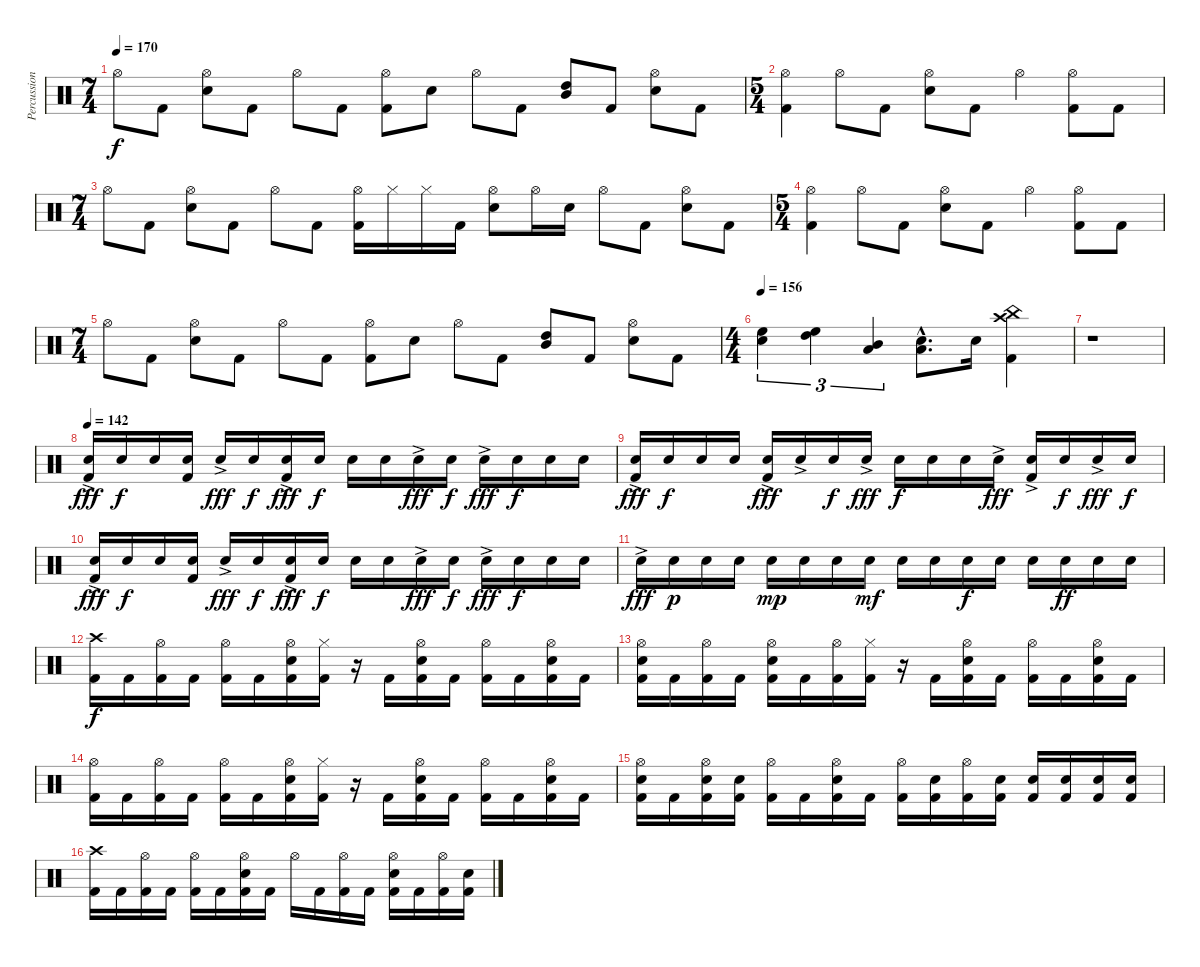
\track ("Percussion" "Percussion") {instrument percussion}
\staff {score}
\articulation defaults
\ts (7 4)
\tempo 170
\clef neutral
\ks c "Hi-Hat (open)".8{dy f} "Kick (hit) 2".8
("Hi-Hat (open)" "Electric Snare (hit)").8 "Kick (hit) 2".8 "Hi-Hat (open)".8 "Kick (hit) 2".8 ("Hi-Hat (open)" "Kick (hit) 2").8 "Electric Snare (hit)".8 "Hi-Hat (open)".8 "Kick (hit) 2".8 ("High Tom (hit)" "Mid Tom (hit)").8 "Kick (hit) 2".8 ("Hi-Hat (open)" "Electric Snare (hit)").8 "Kick (hit) 2".8 |
\ts (5 4)
("Hi-Hat (open)" "Kick (hit) 2").4 "Hi-Hat (open)".8 "Kick (hit) 2".8 ("Hi-Hat (open)" "Electric Snare (hit)").8 "Kick (hit) 2".8 "Hi-Hat (open)".4 ("Hi-Hat (open)" "Kick (hit) 2").8 "Kick (hit) 2".8 |
\ts (7 4)
"Hi-Hat (open)".8 "Kick (hit) 2".8 ("Hi-Hat (open)" "Electric Snare (hit)").8 "Kick (hit) 2".8 "Hi-Hat (open)".8 "Kick (hit) 2".8 ("Hi-Hat (open)" "Kick (hit) 2").16 "Hi-Hat (closed)".16 "Hi-Hat (closed)".16 "Kick (hit) 2".16 ("Hi-Hat (open)" "Electric Snare (hit)").8 "Hi-Hat (open)".16 "Electric Snare (hit)".16 "Hi-Hat (open)".8 "Kick (hit) 2".8 ("Hi-Hat (open)" "Electric Snare (hit)").8 "Kick (hit) 2".8 |
\ts (5 4)
("Hi-Hat (open)" "Kick (hit) 2").4 "Hi-Hat (open)".8 "Kick (hit) 2".8 ("Hi-Hat (open)" "Electric Snare (hit)").8 "Kick (hit) 2".8 "Hi-Hat (open)".4 ("Hi-Hat (open)" "Kick (hit) 2").8 "Kick (hit) 2".8 |
\ts (7 4)
"Hi-Hat (open)".8 "Kick (hit) 2".8 ("Hi-Hat (open)" "Electric Snare (hit)").8 "Kick (hit) 2".8 "Hi-Hat (open)".8 "Kick (hit) 2".8 ("Hi-Hat (open)" "Kick (hit) 2").8 "Electric Snare (hit)".8 "Hi-Hat (open)".8 "Kick (hit) 2".8 ("High Tom (hit)" "Mid Tom (hit)").8 "Kick (hit) 2".8 ("Hi-Hat (open)" "Electric Snare (hit)").8 "Kick (hit) 2".8 |
\ts (4 4)
\tempo 156
("High Floor Tom (hit)" "Electric Snare (hit)").4{tu (3 2)} ("High Floor Tom (hit)" "High Tom (hit)").4{tu (3 2)} ("Mid Tom (hit)" "Low Tom (hit)").4{tu (3 2)} ("Electric Snare (hit)"{hac} "Low Tom (hit)"{hac}).8{d} "Electric Snare (hit)".16 ("Crash high (hit)" "China (hit)" "Kick (hit) 2").4 |
r.1 |
\tempo 142
("Electric Snare (hit)"{ac} "Kick (hit) 2").16{dy fff} "Electric Snare (hit)".16{dy f} "Electric Snare (hit)".16 ("Electric Snare (hit)" "Kick (hit) 2").16 "Electric Snare (hit)"{ac}.16{dy fff} "Electric Snare (hit)".16{dy f} ("Electric Snare (hit)"{ac} "Kick (hit) 2").16{dy fff} "Electric Snare (hit)".16{dy f} "Electric Snare (hit)".16 "Electric Snare (hit)".16 "Electric Snare (hit)"{ac}.16{dy fff} "Electric Snare (hit)".16{dy f} "Electric Snare (hit)"{ac}.16{dy fff} "Electric Snare (hit)".16{dy f} "Electric Snare (hit)".16 "Electric Snare (hit)".16 |
("Electric Snare (hit)"{ac} "Kick (hit) 2").16{dy fff} "Electric Snare (hit)".16{dy f} "Electric Snare (hit)".16 "Electric Snare (hit)".16 ("Electric Snare (hit)"{ac} "Kick (hit) 2").16{dy fff} "Electric Snare (hit)"{ac}.16 "Electric Snare (hit)".16{dy f} "Electric Snare (hit)"{ac}.16{dy fff} "Electric Snare (hit)".16{dy f} "Electric Snare (hit)".16 "Electric Snare (hit)".16 "Electric Snare (hit)"{ac}.16{dy fff} ("Electric Snare (hit)"{ac} "Kick (hit) 2").16 "Electric Snare (hit)".16{dy f} "Electric Snare (hit)"{ac}.16{dy fff} "Electric Snare (hit)".16{dy f} |
("Electric Snare (hit)"{ac} "Kick (hit) 2").16{dy fff} "Electric Snare (hit)".16{dy f} "Electric Snare (hit)".16 ("Electric Snare (hit)" "Kick (hit) 2").16 "Electric Snare (hit)"{ac}.16{dy fff} "Electric Snare (hit)".16{dy f} ("Electric Snare (hit)"{ac} "Kick (hit) 2").16{dy fff} "Electric Snare (hit)".16{dy f} "Electric Snare (hit)".16 "Electric Snare (hit)".16 "Electric Snare (hit)"{ac}.16{dy fff} "Electric Snare (hit)".16{dy f} "Electric Snare (hit)"{ac}.16{dy fff} "Electric Snare (hit)".16{dy f} "Electric Snare (hit)".16 "Electric Snare (hit)".16 |
"Electric Snare (hit)"{ac}.16{dy fff} "Electric Snare (hit)".16{dy p} "Electric Snare (hit)".16 "Electric Snare (hit)".16 "Electric Snare (hit)".16{dy mp} "Electric Snare (hit)".16 "Electric Snare (hit)".16 "Electric Snare (hit)".16{dy mf} "Electric Snare (hit)".16 "Electric Snare (hit)".16 "Electric Snare (hit)".16{dy f} "Electric Snare (hit)".16 "Electric Snare (hit)".16 "Electric Snare (hit)".16{dy ff} "Electric Snare (hit)".16 "Electric Snare (hit)".16 |
("Crash high (hit)" "Kick (hit) 2").16{dy f} "Kick (hit) 2".16 ("Hi-Hat (open)" "Kick (hit) 2").16 "Kick (hit) 2".16 ("Hi-Hat (open)" "Kick (hit) 2").16 "Kick (hit) 2".16 ("Hi-Hat (open)" "Electric Snare (hit)" "Kick (hit) 2").16 ("Hi-Hat (closed)" "Kick (hit) 2").16 r.16 "Kick (hit) 2".16 ("Hi-Hat (open)" "Electric Snare (hit)" "Kick (hit) 2").16 "Kick (hit) 2".16 ("Hi-Hat (open)" "Kick (hit) 2").16 "Kick (hit) 2".16 ("Hi-Hat (open)" "Electric Snare (hit)" "Kick (hit) 2").16 "Kick (hit) 2".16 |
("Hi-Hat (open)" "Electric Snare (hit)" "Kick (hit) 2").16 "Kick (hit) 2".16 ("Hi-Hat (open)" "Kick (hit) 2").16 "Kick (hit) 2".16 ("Hi-Hat (open)" "Electric Snare (hit)" "Kick (hit) 2").16 "Kick (hit) 2".16 ("Hi-Hat (open)" "Kick (hit) 2").16 ("Hi-Hat (closed)" "Kick (hit) 2").16 r.16 "Kick (hit) 2".16 ("Hi-Hat (open)" "Electric Snare (hit)" "Kick (hit) 2").16 "Kick (hit) 2".16 ("Hi-Hat (open)" "Kick (hit) 2").16 "Kick (hit) 2".16 ("Hi-Hat (open)" "Electric Snare (hit)" "Kick (hit) 2").16 "Kick (hit) 2".16 |
("Hi-Hat (open)" "Kick (hit) 2").16 "Kick (hit) 2".16 ("Hi-Hat (open)" "Kick (hit) 2").16 "Kick (hit) 2".16 ("Hi-Hat (open)" "Kick (hit) 2").16 "Kick (hit) 2".16 ("Hi-Hat (open)" "Electric Snare (hit)" "Kick (hit) 2").16 ("Hi-Hat (closed)" "Kick (hit) 2").16 r.16 "Kick (hit) 2".16 ("Hi-Hat (open)" "Electric Snare (hit)" "Kick (hit) 2").16 "Kick (hit) 2".16 ("Hi-Hat (open)" "Kick (hit) 2").16 "Kick (hit) 2".16 ("Hi-Hat (open)" "Electric Snare (hit)" "Kick (hit) 2").16 "Kick (hit) 2".16 |
("Hi-Hat (open)" "Electric Snare (hit)" "Kick (hit) 2").16 "Kick (hit) 2".16 ("Hi-Hat (open)" "Electric Snare (hit)" "Kick (hit) 2").16 ("Electric Snare (hit)" "Kick (hit) 2").16 ("Hi-Hat (open)" "Kick (hit) 2").16 "Kick (hit) 2".16 ("Hi-Hat (open)" "Electric Snare (hit)" "Kick (hit) 2").16 "Kick (hit) 2".16 ("Hi-Hat (open)" "Kick (hit) 2").16 ("Electric Snare (hit)" "Kick (hit) 2").16 ("Hi-Hat (open)" "Kick (hit) 2").16 ("Electric Snare (hit)" "Kick (hit) 2").16 ("Electric Snare (hit)" "Kick (hit) 2").16 ("Electric Snare (hit)" "Kick (hit) 2").16 ("Electric Snare (hit)" "Kick (hit) 2").16 ("Electric Snare (hit)" "Kick (hit) 2").16 |
("Crash high (hit)" "Kick (hit) 2").16 "Kick (hit) 2".16 ("Hi-Hat (open)" "Kick (hit) 2").16 "Kick (hit) 2".16 ("Hi-Hat (open)" "Kick (hit) 2").16 "Kick (hit) 2".16 ("Hi-Hat (open)" "Electric Snare (hit)" "Kick (hit) 2").16 "Kick (hit) 2".16 "Hi-Hat (open)".16 "Kick (hit) 2".16 ("Hi-Hat (open)" "Kick (hit) 2").16 "Kick (hit) 2".16 ("Hi-Hat (open)" "Electric Snare (hit)" "Kick (hit) 2").16 "Kick (hit) 2".16 ("Hi-Hat (open)" "Kick (hit) 2").16 ("Electric Snare (hit)" "Kick (hit) 2").16
